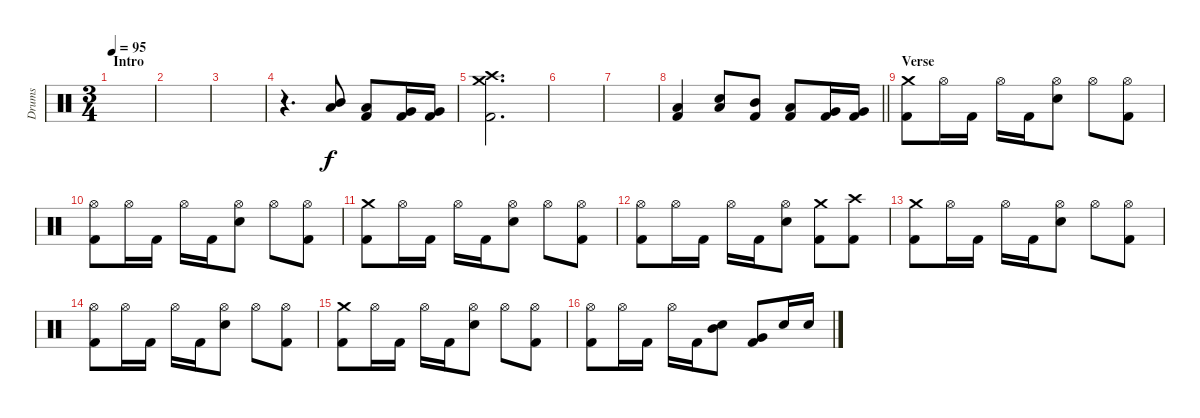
\track ("Drums" "Drums") {instrument percussion}
\staff {score}
\articulation defaults
\ts (3 4)
\section ("" "Intro")
\tempo 95
\clef neutral
\ks c
|
|
|
r.4{d} ("Mid Tom (hit)" "Low Tom (hit)").8 ("Low Tom (hit)" "Kick (hit) 2").8 ("Very Low Tom (hit)" "Kick (hit) 2").16 ("Very Low Tom (hit)" "Kick (hit) 2").16 |
("Crash high (hit)" "Crash medium (hit)" "Kick (hit) 2").2{d} |
|
|
\barLineRight lightlight
("Low Tom (hit)" "Kick (hit) 2").4 ("Electric Snare (hit)" "Low Tom (hit)").8 ("Mid Tom (hit)" "Kick (hit) 2").8 ("Low Tom (hit)" "Kick (hit) 2").8 ("Very Low Tom (hit)" "Kick (hit) 2").16 ("Very Low Tom (hit)" "Kick (hit) 2").16 |
\section ("" "Verse")
("Crash medium (hit)" "Kick (hit) 2").8 "Hi-Hat (open)".16 "Kick (hit) 2".16 "Hi-Hat (open)".16 "Kick (hit) 2".16 ("Hi-Hat (open)" "Electric Snare (hit)").8 "Hi-Hat (open)".8 ("Hi-Hat (open)" "Kick (hit) 2").8 |
("Hi-Hat (open)" "Kick (hit) 2").8 "Hi-Hat (open)".16 "Kick (hit) 2".16 "Hi-Hat (open)".16 "Kick (hit) 2".16 ("Hi-Hat (open)" "Electric Snare (hit)").8 "Hi-Hat (open)".8 ("Hi-Hat (open)" "Kick (hit) 2").8 |
("Crash medium (hit)" "Kick (hit) 2").8 "Hi-Hat (open)".16 "Kick (hit) 2".16 "Hi-Hat (open)".16 "Kick (hit) 2".16 ("Hi-Hat (open)" "Electric Snare (hit)").8 "Hi-Hat (open)".8 ("Hi-Hat (open)" "Kick (hit) 2").8 |
("Hi-Hat (open)" "Kick (hit) 2").8 "Hi-Hat (open)".16 "Kick (hit) 2".16 "Hi-Hat (open)".16 "Kick (hit) 2".16 ("Hi-Hat (open)" "Electric Snare (hit)").8 ("Crash medium (hit)" "Kick (hit) 2").8 ("Crash high (hit)" "Kick (hit) 2").8 |
("Crash medium (hit)" "Kick (hit) 2").8 "Hi-Hat (open)".16 "Kick (hit) 2".16 "Hi-Hat (open)".16 "Kick (hit) 2".16 ("Hi-Hat (open)" "Electric Snare (hit)").8 "Hi-Hat (open)".8 ("Hi-Hat (open)" "Kick (hit) 2").8 |
("Hi-Hat (open)" "Kick (hit) 2").8 "Hi-Hat (open)".16 "Kick (hit) 2".16 "Hi-Hat (open)".16 "Kick (hit) 2".16 ("Hi-Hat (open)" "Electric Snare (hit)").8 "Hi-Hat (open)".8 ("Hi-Hat (open)" "Kick (hit) 2").8 |
("Crash medium (hit)" "Kick (hit) 2").8 "Hi-Hat (open)".16 "Kick (hit) 2".16 "Hi-Hat (open)".16 "Kick (hit) 2".16 ("Hi-Hat (open)" "Electric Snare (hit)").8 "Hi-Hat (open)".8 ("Hi-Hat (open)" "Kick (hit) 2").8 |
("Hi-Hat (open)" "Kick (hit) 2").8 "Hi-Hat (open)".16 "Kick (hit) 2".16 "Hi-Hat (open)".16 "Kick (hit) 2".16 ("Electric Snare (hit)" "Mid Tom (hit)").8 ("Very Low Tom (hit)" "Kick (hit) 2").8 "Electric Snare (hit)".16 "Electric Snare (hit)".16
